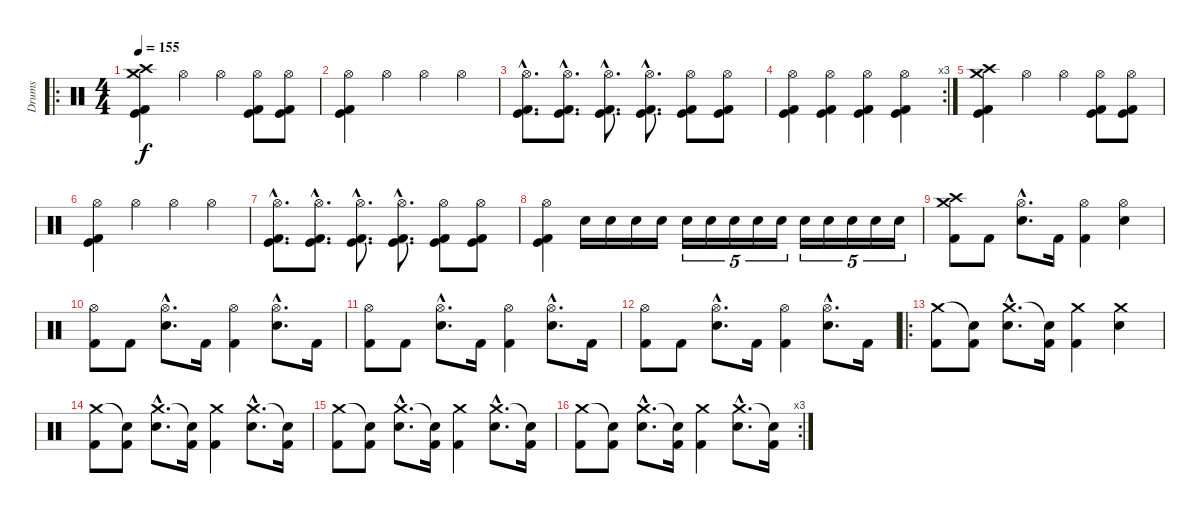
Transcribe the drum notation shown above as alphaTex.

\track ("Drums" "Drums") {instrument percussion}
\staff {score}
\articulation defaults
\ro
\ts (4 4)
\tempo 155
\clef neutral
\ks c
("Crash medium (hit)" "Kick (hit) 2" "Kick (hit)" "Crash high (hit)").4{dy f} "Hi-Hat (open)".4 "Hi-Hat (open)".4 ("Hi-Hat (open)" "Kick (hit) 2" "Kick (hit)").8 ("Hi-Hat (open)" "Kick (hit) 2" "Kick (hit)").8 |
("Hi-Hat (open)" "Kick (hit) 2" "Kick (hit)").4 "Hi-Hat (open)".4 "Hi-Hat (open)".4 "Hi-Hat (open)".4 |
("Hi-Hat (open)"{hac} "Kick (hit) 2"{hac} "Kick (hit)"{hac}).8{d} ("Hi-Hat (open)"{hac} "Kick (hit) 2"{hac} "Kick (hit)"{hac}).8{d} ("Hi-Hat (open)"{hac} "Kick (hit) 2"{hac} "Kick (hit)"{hac}).8{d} ("Hi-Hat (open)"{hac} "Kick (hit) 2"{hac} "Kick (hit)"{hac}).8{d} ("Hi-Hat (open)" "Kick (hit) 2" "Kick (hit)").8 ("Hi-Hat (open)" "Kick (hit) 2" "Kick (hit)").8 |
\rc 3
("Hi-Hat (open)" "Kick (hit) 2" "Kick (hit)").4 ("Hi-Hat (open)" "Kick (hit) 2" "Kick (hit)").4 ("Hi-Hat (open)" "Kick (hit) 2" "Kick (hit)").4 ("Hi-Hat (open)" "Kick (hit) 2" "Kick (hit)").4 |
("Crash medium (hit)" "Kick (hit) 2" "Kick (hit)" "Crash high (hit)").4 "Hi-Hat (open)".4 "Hi-Hat (open)".4 ("Hi-Hat (open)" "Kick (hit) 2" "Kick (hit)").8 ("Hi-Hat (open)" "Kick (hit) 2" "Kick (hit)").8 |
("Hi-Hat (open)" "Kick (hit) 2" "Kick (hit)").4 "Hi-Hat (open)".4 "Hi-Hat (open)".4 "Hi-Hat (open)".4 |
("Hi-Hat (open)"{hac} "Kick (hit) 2"{hac} "Kick (hit)"{hac}).8{d} ("Hi-Hat (open)"{hac} "Kick (hit) 2"{hac} "Kick (hit)"{hac}).8{d} ("Hi-Hat (open)"{hac} "Kick (hit) 2"{hac} "Kick (hit)"{hac}).8{d} ("Hi-Hat (open)"{hac} "Kick (hit) 2"{hac} "Kick (hit)"{hac}).8{d} ("Hi-Hat (open)" "Kick (hit) 2" "Kick (hit)").8 ("Hi-Hat (open)" "Kick (hit) 2" "Kick (hit)").8 |
("Hi-Hat (open)" "Kick (hit) 2" "Kick (hit)").4 "Snare (hit) 2".16 "Snare (hit) 2".16 "Snare (hit) 2".16 "Snare (hit) 2".16 "Snare (hit) 2".16{tu (5 4)} "Snare (hit) 2".16{tu (5 4)} "Snare (hit) 2".16{tu (5 4)} "Snare (hit) 2".16{tu (5 4)} "Snare (hit) 2".16{tu (5 4)} "Snare (hit) 2".16{tu (5 4)} "Snare (hit) 2".16{tu (5 4)} "Snare (hit) 2".16{tu (5 4)} "Snare (hit) 2".16{tu (5 4)} "Snare (hit) 2".16{tu (5 4)} |
("Crash medium (hit)" "Kick (hit) 2" "Crash high (hit)").8 "Kick (hit) 2".8 ("Hi-Hat (open)"{hac} "Snare (hit) 2"{hac}).8{d} "Kick (hit) 2".16 ("Hi-Hat (open)" "Kick (hit) 2").4 ("Hi-Hat (open)" "Snare (hit) 2").4 |
("Hi-Hat (open)" "Kick (hit) 2").8 "Kick (hit) 2".8 ("Hi-Hat (open)"{hac} "Snare (hit) 2"{hac}).8{d} "Kick (hit) 2".16 ("Hi-Hat (open)" "Kick (hit) 2").4 ("Hi-Hat (open)"{hac} "Snare (hit) 2"{hac}).8{d} "Kick (hit) 2".16 |
("Hi-Hat (open)" "Kick (hit) 2").8 "Kick (hit) 2".8 ("Hi-Hat (open)"{hac} "Snare (hit) 2"{hac}).8{d} "Kick (hit) 2".16 ("Hi-Hat (open)" "Kick (hit) 2").4 ("Hi-Hat (open)"{hac} "Snare (hit) 2"{hac}).8{d} "Kick (hit) 2".16 |
("Hi-Hat (open)" "Kick (hit) 2").8 "Kick (hit) 2".8 ("Hi-Hat (open)"{hac} "Snare (hit) 2"{hac}).8{d} "Kick (hit) 2".16 ("Hi-Hat (open)" "Kick (hit) 2").4 ("Hi-Hat (open)"{hac} "Snare (hit) 2"{hac}).8{d} "Kick (hit) 2".16 |
\ro
("Crash medium (hit)" "Kick (hit) 2").8 ("Snare (hit)"{t} "Kick (hit) 2").8 ("Crash medium (hit)"{hac} "Snare (hit) 2"{hac}).8{d} ("Snare (hit)"{t} "Kick (hit) 2").16 ("Crash medium (hit)" "Kick (hit) 2").4 ("Crash medium (hit)" "Snare (hit) 2").4 |
("Crash medium (hit)" "Kick (hit) 2").8 ("Snare (hit)"{t} "Kick (hit) 2").8 ("Crash medium (hit)"{hac} "Snare (hit) 2"{hac}).8{d} ("Snare (hit)"{t} "Kick (hit) 2").16 ("Crash medium (hit)" "Kick (hit) 2").4 ("Crash medium (hit)"{hac} "Snare (hit) 2"{hac}).8{d} ("Snare (hit)"{t} "Kick (hit) 2").16 |
("Crash medium (hit)" "Kick (hit) 2").8 ("Snare (hit)"{t} "Kick (hit) 2").8 ("Crash medium (hit)"{hac} "Snare (hit) 2"{hac}).8{d} ("Snare (hit)"{t} "Kick (hit) 2").16 ("Crash medium (hit)" "Kick (hit) 2").4 ("Crash medium (hit)"{hac} "Snare (hit) 2"{hac}).8{d} ("Snare (hit)"{t} "Kick (hit) 2").16 |
\rc 3
("Crash medium (hit)" "Kick (hit) 2").8 ("Snare (hit)"{t} "Kick (hit) 2").8 ("Crash medium (hit)"{hac} "Snare (hit) 2"{hac}).8{d} ("Snare (hit)"{t} "Kick (hit) 2").16 ("Crash medium (hit)" "Kick (hit) 2").4 ("Crash medium (hit)"{hac} "Snare (hit) 2"{hac}).8{d} ("Snare (hit)"{t} "Kick (hit) 2").16
